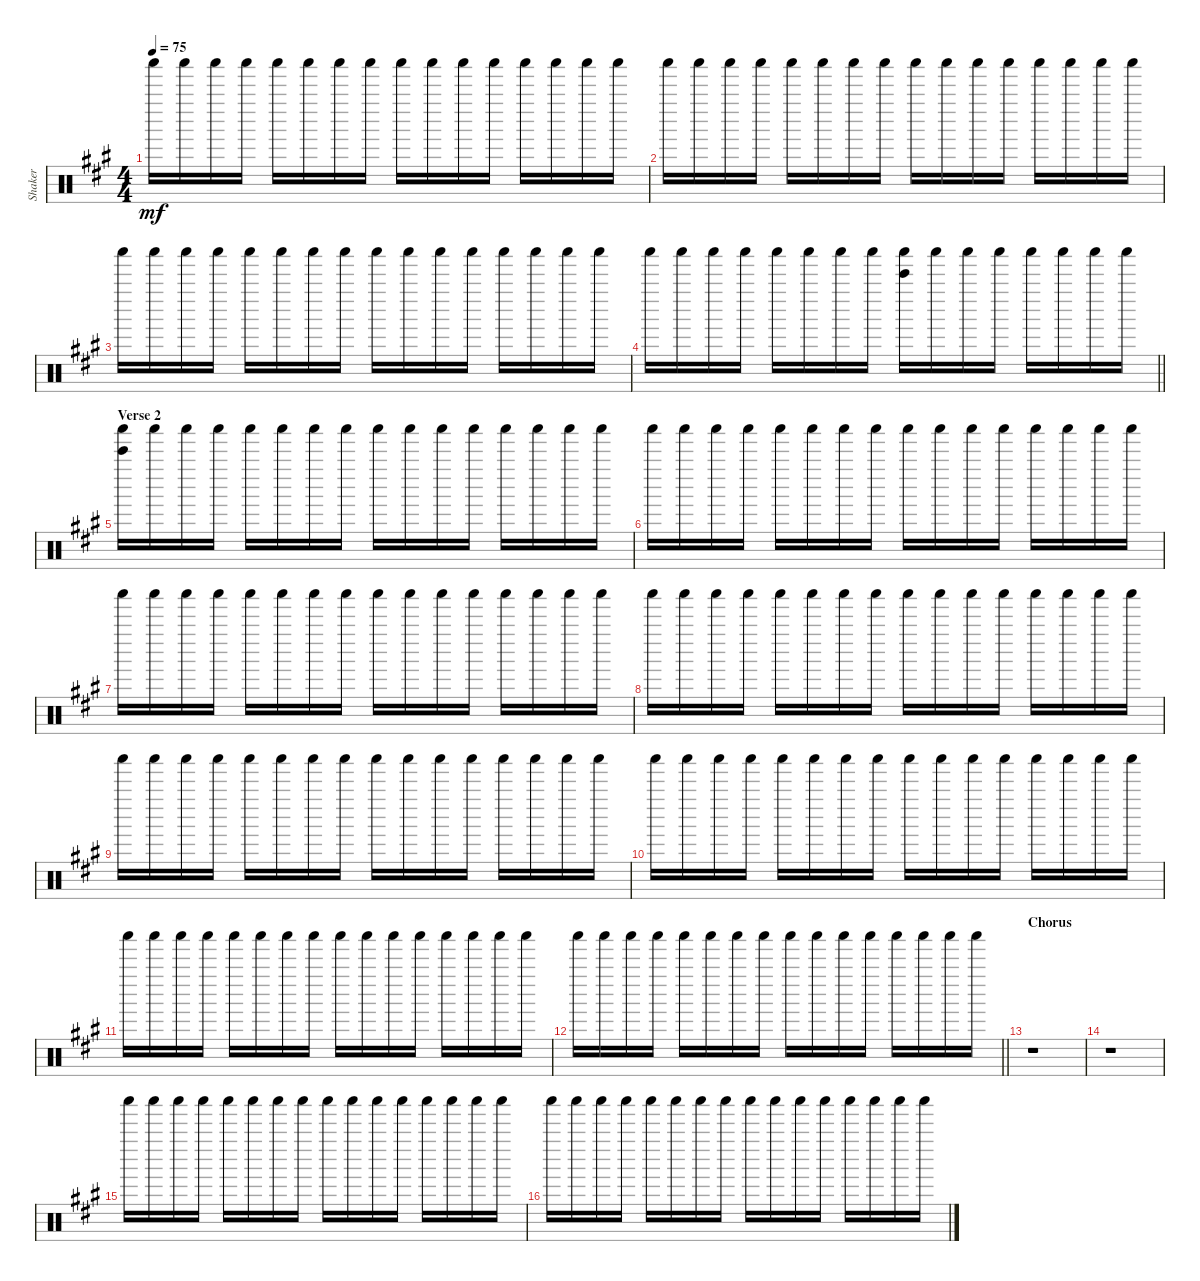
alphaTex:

\track ("Shaker" "Shaker") {instrument percussion}
\staff {score}
\articulation defaults
\ts (4 4)
\tempo 75
\clef neutral
\ks f#minor "Shaker (hit)".16{dy mf} "Shaker (hit)".16 "Shaker (hit)".16 "Shaker (hit)".16 "Shaker (hit)".16 "Shaker (hit)".16 "Shaker (hit)".16 "Shaker (hit)".16 "Shaker (hit)".16 "Shaker (hit)".16 "Shaker (hit)".16 "Shaker (hit)".16 "Shaker (hit)".16 "Shaker (hit)".16 "Shaker (hit)".16 "Shaker (hit)".16
|
"Shaker (hit)".16 "Shaker (hit)".16 "Shaker (hit)".16 "Shaker (hit)".16 "Shaker (hit)".16 "Shaker (hit)".16 "Shaker (hit)".16 "Shaker (hit)".16 "Shaker (hit)".16 "Shaker (hit)".16 "Shaker (hit)".16 "Shaker (hit)".16 "Shaker (hit)".16 "Shaker (hit)".16 "Shaker (hit)".16 "Shaker (hit)".16 |
"Shaker (hit)".16 "Shaker (hit)".16 "Shaker (hit)".16 "Shaker (hit)".16 "Shaker (hit)".16 "Shaker (hit)".16 "Shaker (hit)".16 "Shaker (hit)".16 "Shaker (hit)".16 "Shaker (hit)".16 "Shaker (hit)".16 "Shaker (hit)".16 "Shaker (hit)".16 "Shaker (hit)".16 "Shaker (hit)".16 "Shaker (hit)".16 |
\barLineRight lightlight "Shaker (hit)".16 "Shaker (hit)".16 "Shaker (hit)".16 "Shaker (hit)".16 "Shaker (hit)".16 "Shaker (hit)".16 "Shaker (hit)".16 "Shaker (hit)".16
("Shaker (hit)" "Bell Tree (hit)").16 "Shaker (hit)".16 "Shaker (hit)".16 "Shaker (hit)".16 "Shaker (hit)".16 "Shaker (hit)".16 "Shaker (hit)".16 "Shaker (hit)".16 |
\section ("" "Verse 2")
("Shaker (hit)" "Bell Tree (hit)").16 "Shaker (hit)".16 "Shaker (hit)".16 "Shaker (hit)".16 "Shaker (hit)".16 "Shaker (hit)".16 "Shaker (hit)".16 "Shaker (hit)".16 "Shaker (hit)".16 "Shaker (hit)".16 "Shaker (hit)".16 "Shaker (hit)".16 "Shaker (hit)".16 "Shaker (hit)".16 "Shaker (hit)".16 "Shaker (hit)".16 |
"Shaker (hit)".16 "Shaker (hit)".16 "Shaker (hit)".16 "Shaker (hit)".16 "Shaker (hit)".16 "Shaker (hit)".16 "Shaker (hit)".16 "Shaker (hit)".16 "Shaker (hit)".16 "Shaker (hit)".16 "Shaker (hit)".16 "Shaker (hit)".16 "Shaker (hit)".16 "Shaker (hit)".16 "Shaker (hit)".16 "Shaker (hit)".16 |
"Shaker (hit)".16 "Shaker (hit)".16 "Shaker (hit)".16 "Shaker (hit)".16 "Shaker (hit)".16 "Shaker (hit)".16 "Shaker (hit)".16 "Shaker (hit)".16 "Shaker (hit)".16 "Shaker (hit)".16 "Shaker (hit)".16 "Shaker (hit)".16 "Shaker (hit)".16 "Shaker (hit)".16 "Shaker (hit)".16 "Shaker (hit)".16 |
"Shaker (hit)".16 "Shaker (hit)".16 "Shaker (hit)".16 "Shaker (hit)".16 "Shaker (hit)".16 "Shaker (hit)".16 "Shaker (hit)".16 "Shaker (hit)".16 "Shaker (hit)".16 "Shaker (hit)".16 "Shaker (hit)".16 "Shaker (hit)".16 "Shaker (hit)".16 "Shaker (hit)".16 "Shaker (hit)".16 "Shaker (hit)".16 |
"Shaker (hit)".16 "Shaker (hit)".16 "Shaker (hit)".16 "Shaker (hit)".16 "Shaker (hit)".16 "Shaker (hit)".16 "Shaker (hit)".16 "Shaker (hit)".16 "Shaker (hit)".16 "Shaker (hit)".16 "Shaker (hit)".16 "Shaker (hit)".16 "Shaker (hit)".16 "Shaker (hit)".16 "Shaker (hit)".16 "Shaker (hit)".16 |
"Shaker (hit)".16 "Shaker (hit)".16 "Shaker (hit)".16 "Shaker (hit)".16 "Shaker (hit)".16 "Shaker (hit)".16 "Shaker (hit)".16 "Shaker (hit)".16 "Shaker (hit)".16 "Shaker (hit)".16 "Shaker (hit)".16 "Shaker (hit)".16 "Shaker (hit)".16 "Shaker (hit)".16 "Shaker (hit)".16 "Shaker (hit)".16 |
"Shaker (hit)".16 "Shaker (hit)".16 "Shaker (hit)".16 "Shaker (hit)".16 "Shaker (hit)".16 "Shaker (hit)".16 "Shaker (hit)".16 "Shaker (hit)".16 "Shaker (hit)".16 "Shaker (hit)".16 "Shaker (hit)".16 "Shaker (hit)".16 "Shaker (hit)".16 "Shaker (hit)".16 "Shaker (hit)".16 "Shaker (hit)".16 |
\barLineRight lightlight "Shaker (hit)".16 "Shaker (hit)".16 "Shaker (hit)".16 "Shaker (hit)".16 "Shaker (hit)".16 "Shaker (hit)".16 "Shaker (hit)".16 "Shaker (hit)".16 "Shaker (hit)".16 "Shaker (hit)".16 "Shaker (hit)".16 "Shaker (hit)".16 "Shaker (hit)".16 "Shaker (hit)".16 "Shaker (hit)".16 "Shaker (hit)".16
|
\section ("" "Chorus")
r.1 |
r.1 |
"Shaker (hit)".16 "Shaker (hit)".16 "Shaker (hit)".16 "Shaker (hit)".16 "Shaker (hit)".16 "Shaker (hit)".16 "Shaker (hit)".16 "Shaker (hit)".16 "Shaker (hit)".16 "Shaker (hit)".16 "Shaker (hit)".16 "Shaker (hit)".16 "Shaker (hit)".16 "Shaker (hit)".16 "Shaker (hit)".16 "Shaker (hit)".16 |
"Shaker (hit)".16 "Shaker (hit)".16 "Shaker (hit)".16 "Shaker (hit)".16 "Shaker (hit)".16 "Shaker (hit)".16 "Shaker (hit)".16 "Shaker (hit)".16 "Shaker (hit)".16 "Shaker (hit)".16 "Shaker (hit)".16 "Shaker (hit)".16 "Shaker (hit)".16 "Shaker (hit)".16 "Shaker (hit)".16 "Shaker (hit)".16
